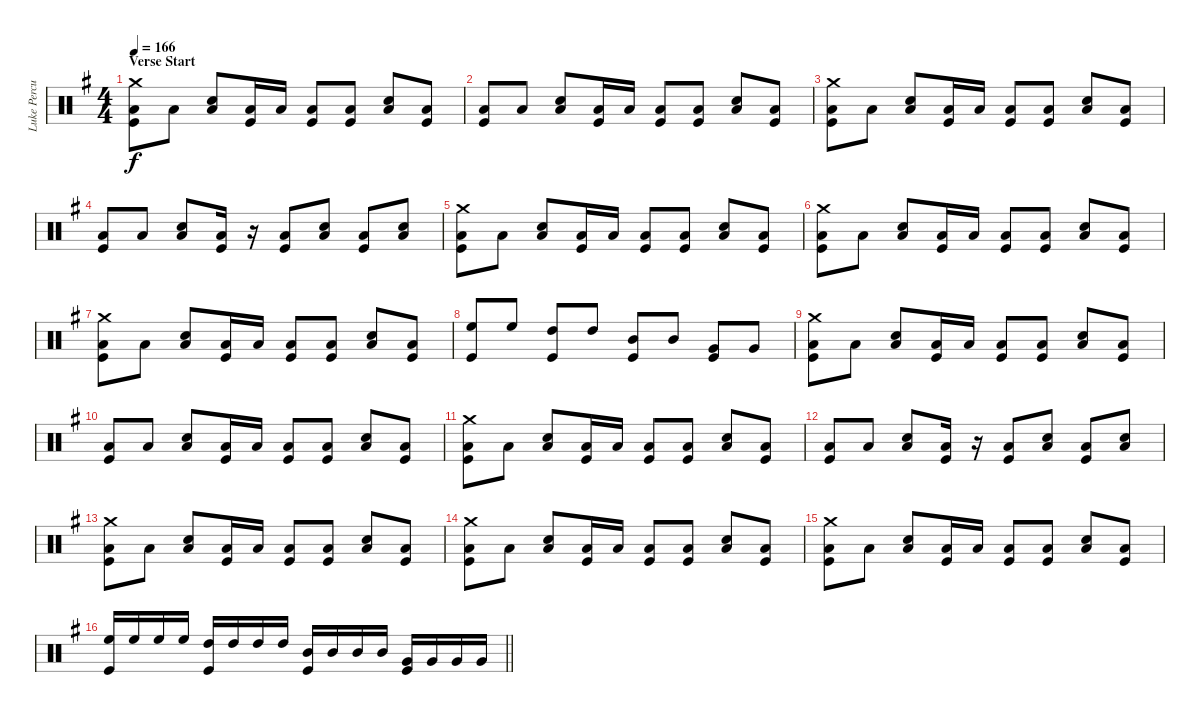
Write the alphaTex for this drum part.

\track ("Luke Percussion" "Luke Percu") {instrument percussion}
\staff {score}
\articulation defaults
\ts (4 4)
\section ("" "Verse Start")
\tempo 166
\clef neutral
\ks eminor
("Crash medium (hit)" "Low Floor Tom (hit)" "Kick (hit)").8{dy f} "Low Floor Tom (hit)".8 ("Snare (hit) 2" "Low Floor Tom (hit)").8 ("Low Floor Tom (hit)" "Kick (hit)").16 "Low Floor Tom (hit)".16 ("Low Floor Tom (hit)" "Kick (hit)").8 ("Low Floor Tom (hit)" "Kick (hit)").8 ("Snare (hit) 2" "Low Floor Tom (hit)").8 ("Low Floor Tom (hit)" "Kick (hit)").8 |
("Low Floor Tom (hit)" "Kick (hit)").8 "Low Floor Tom (hit)".8 ("Snare (hit) 2" "Low Floor Tom (hit)").8 ("Low Floor Tom (hit)" "Kick (hit)").16 "Low Floor Tom (hit)".16 ("Low Floor Tom (hit)" "Kick (hit)").8 ("Low Floor Tom (hit)" "Kick (hit)").8 ("Snare (hit) 2" "Low Floor Tom (hit)").8 ("Low Floor Tom (hit)" "Kick (hit)").8 |
("Crash medium (hit)" "Low Floor Tom (hit)" "Kick (hit)").8 "Low Floor Tom (hit)".8 ("Snare (hit) 2" "Low Floor Tom (hit)").8 ("Low Floor Tom (hit)" "Kick (hit)").16 "Low Floor Tom (hit)".16 ("Low Floor Tom (hit)" "Kick (hit)").8 ("Low Floor Tom (hit)" "Kick (hit)").8 ("Snare (hit) 2" "Low Floor Tom (hit)").8 ("Low Floor Tom (hit)" "Kick (hit)").8 |
("Low Floor Tom (hit)" "Kick (hit)").8 "Low Floor Tom (hit)".8 ("Snare (hit) 2" "Low Floor Tom (hit)").8 ("Low Floor Tom (hit)" "Kick (hit)").16 r.16 ("Low Floor Tom (hit)" "Kick (hit)").8 ("Snare (hit) 2" "Low Floor Tom (hit)").8 ("Low Floor Tom (hit)" "Kick (hit)").8 ("Snare (hit) 2" "Low Floor Tom (hit)").8 |
("Crash medium (hit)" "Low Floor Tom (hit)" "Kick (hit)").8 "Low Floor Tom (hit)".8 ("Snare (hit) 2" "Low Floor Tom (hit)").8 ("Low Floor Tom (hit)" "Kick (hit)").16 "Low Floor Tom (hit)".16 ("Low Floor Tom (hit)" "Kick (hit)").8 ("Low Floor Tom (hit)" "Kick (hit)").8 ("Snare (hit) 2" "Low Floor Tom (hit)").8 ("Low Floor Tom (hit)" "Kick (hit)").8 |
("Crash medium (hit)" "Low Floor Tom (hit)" "Kick (hit)").8 "Low Floor Tom (hit)".8 ("Snare (hit) 2" "Low Floor Tom (hit)").8 ("Low Floor Tom (hit)" "Kick (hit)").16 "Low Floor Tom (hit)".16 ("Low Floor Tom (hit)" "Kick (hit)").8 ("Low Floor Tom (hit)" "Kick (hit)").8 ("Snare (hit) 2" "Low Floor Tom (hit)").8 ("Low Floor Tom (hit)" "Kick (hit)").8 |
("Crash medium (hit)" "Low Floor Tom (hit)" "Kick (hit)").8 "Low Floor Tom (hit)".8 ("Snare (hit) 2" "Low Floor Tom (hit)").8 ("Low Floor Tom (hit)" "Kick (hit)").16 "Low Floor Tom (hit)".16 ("Low Floor Tom (hit)" "Kick (hit)").8 ("Low Floor Tom (hit)" "Kick (hit)").8 ("Snare (hit) 2" "Low Floor Tom (hit)").8 ("Low Floor Tom (hit)" "Kick (hit)").8 |
("High Floor Tom (hit)" "Kick (hit)").8 "High Floor Tom (hit)".8 ("High Tom (hit)" "Kick (hit)").8 "High Tom (hit)".8 ("Mid Tom (hit)" "Kick (hit)").8 "Mid Tom (hit)".8 ("Very Low Tom (hit)" "Kick (hit)").8 "Very Low Tom (hit)".8 |
("Crash medium (hit)" "Low Floor Tom (hit)" "Kick (hit)").8 "Low Floor Tom (hit)".8 ("Snare (hit) 2" "Low Floor Tom (hit)").8 ("Low Floor Tom (hit)" "Kick (hit)").16 "Low Floor Tom (hit)".16 ("Low Floor Tom (hit)" "Kick (hit)").8 ("Low Floor Tom (hit)" "Kick (hit)").8 ("Snare (hit) 2" "Low Floor Tom (hit)").8 ("Low Floor Tom (hit)" "Kick (hit)").8 |
("Low Floor Tom (hit)" "Kick (hit)").8 "Low Floor Tom (hit)".8 ("Snare (hit) 2" "Low Floor Tom (hit)").8 ("Low Floor Tom (hit)" "Kick (hit)").16 "Low Floor Tom (hit)".16 ("Low Floor Tom (hit)" "Kick (hit)").8 ("Low Floor Tom (hit)" "Kick (hit)").8 ("Snare (hit) 2" "Low Floor Tom (hit)").8 ("Low Floor Tom (hit)" "Kick (hit)").8 |
("Crash medium (hit)" "Low Floor Tom (hit)" "Kick (hit)").8 "Low Floor Tom (hit)".8 ("Snare (hit) 2" "Low Floor Tom (hit)").8 ("Low Floor Tom (hit)" "Kick (hit)").16 "Low Floor Tom (hit)".16 ("Low Floor Tom (hit)" "Kick (hit)").8 ("Low Floor Tom (hit)" "Kick (hit)").8 ("Snare (hit) 2" "Low Floor Tom (hit)").8 ("Low Floor Tom (hit)" "Kick (hit)").8 |
("Low Floor Tom (hit)" "Kick (hit)").8 "Low Floor Tom (hit)".8 ("Snare (hit) 2" "Low Floor Tom (hit)").8 ("Low Floor Tom (hit)" "Kick (hit)").16 r.16 ("Low Floor Tom (hit)" "Kick (hit)").8 ("Snare (hit) 2" "Low Floor Tom (hit)").8 ("Low Floor Tom (hit)" "Kick (hit)").8 ("Snare (hit) 2" "Low Floor Tom (hit)").8 |
("Crash medium (hit)" "Low Floor Tom (hit)" "Kick (hit)").8 "Low Floor Tom (hit)".8 ("Snare (hit) 2" "Low Floor Tom (hit)").8 ("Low Floor Tom (hit)" "Kick (hit)").16 "Low Floor Tom (hit)".16 ("Low Floor Tom (hit)" "Kick (hit)").8 ("Low Floor Tom (hit)" "Kick (hit)").8 ("Snare (hit) 2" "Low Floor Tom (hit)").8 ("Low Floor Tom (hit)" "Kick (hit)").8 |
("Crash medium (hit)" "Low Floor Tom (hit)" "Kick (hit)").8 "Low Floor Tom (hit)".8 ("Snare (hit) 2" "Low Floor Tom (hit)").8 ("Low Floor Tom (hit)" "Kick (hit)").16 "Low Floor Tom (hit)".16 ("Low Floor Tom (hit)" "Kick (hit)").8 ("Low Floor Tom (hit)" "Kick (hit)").8 ("Snare (hit) 2" "Low Floor Tom (hit)").8 ("Low Floor Tom (hit)" "Kick (hit)").8 |
("Crash medium (hit)" "Low Floor Tom (hit)" "Kick (hit)").8 "Low Floor Tom (hit)".8 ("Snare (hit) 2" "Low Floor Tom (hit)").8 ("Low Floor Tom (hit)" "Kick (hit)").16 "Low Floor Tom (hit)".16 ("Low Floor Tom (hit)" "Kick (hit)").8 ("Low Floor Tom (hit)" "Kick (hit)").8 ("Snare (hit) 2" "Low Floor Tom (hit)").8 ("Low Floor Tom (hit)" "Kick (hit)").8 |
\barLineRight lightlight
("High Floor Tom (hit)" "Kick (hit)").16 "High Floor Tom (hit)".16 "High Floor Tom (hit)".16 "High Floor Tom (hit)".16 ("High Tom (hit)" "Kick (hit)").16 "High Tom (hit)".16 "High Tom (hit)".16 "High Tom (hit)".16 ("Mid Tom (hit)" "Kick (hit)").16 "Mid Tom (hit)".16 "Mid Tom (hit)".16 "Mid Tom (hit)".16 ("Very Low Tom (hit)" "Kick (hit)").16 "Very Low Tom (hit)".16 "Very Low Tom (hit)".16 "Very Low Tom (hit)".16
